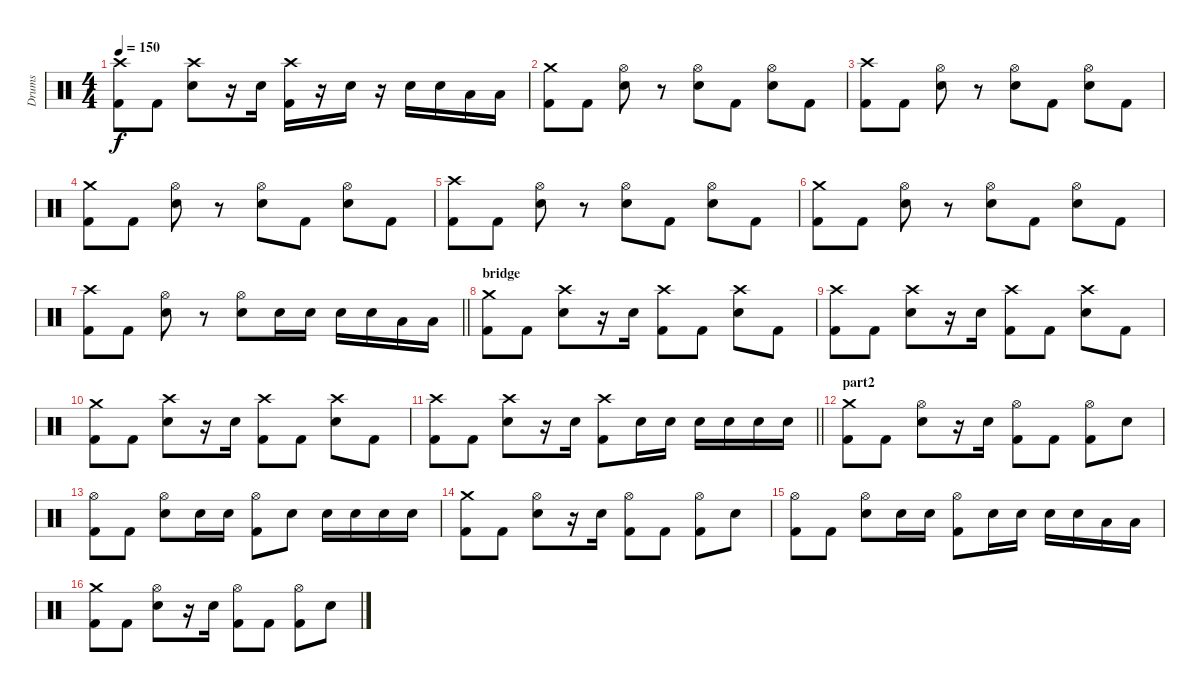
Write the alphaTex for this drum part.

\track ("Drums" "Drums") {instrument percussion}
\staff {score}
\articulation defaults
\ts (4 4)
\tempo 150
\clef neutral
\ks c
("Kick (hit) 2" "Crash high (hit)").8{dy f} "Kick (hit) 2".8 ("Electric Snare (hit)" "Crash high (hit)").8 r.16 "Electric Snare (hit)".16 ("Kick (hit) 2" "Crash high (hit)").16 r.16 "Electric Snare (hit)".16 r.16 "Electric Snare (hit)".16 "Electric Snare (hit)".16 "Low Tom (hit)".16 "Low Tom (hit)".16 |
("Kick (hit) 2" "Crash medium (hit)").8 "Kick (hit) 2".8 ("Electric Snare (hit)" "Hi-Hat (open)").8 r.8 ("Electric Snare (hit)" "Hi-Hat (open)").8 "Kick (hit) 2".8 ("Electric Snare (hit)" "Hi-Hat (open)").8 "Kick (hit) 2".8 |
("Kick (hit) 2" "Crash high (hit)").8 "Kick (hit) 2".8 ("Electric Snare (hit)" "Hi-Hat (open)").8 r.8 ("Electric Snare (hit)" "Hi-Hat (open)").8 "Kick (hit) 2".8 ("Electric Snare (hit)" "Hi-Hat (open)").8 "Kick (hit) 2".8 |
("Kick (hit) 2" "Crash medium (hit)").8 "Kick (hit) 2".8 ("Electric Snare (hit)" "Hi-Hat (open)").8 r.8 ("Electric Snare (hit)" "Hi-Hat (open)").8 "Kick (hit) 2".8 ("Electric Snare (hit)" "Hi-Hat (open)").8 "Kick (hit) 2".8 |
("Kick (hit) 2" "Crash high (hit)").8 "Kick (hit) 2".8 ("Electric Snare (hit)" "Hi-Hat (open)").8 r.8 ("Electric Snare (hit)" "Hi-Hat (open)").8 "Kick (hit) 2".8 ("Electric Snare (hit)" "Hi-Hat (open)").8 "Kick (hit) 2".8 |
("Kick (hit) 2" "Crash medium (hit)").8 "Kick (hit) 2".8 ("Electric Snare (hit)" "Hi-Hat (open)").8 r.8 ("Electric Snare (hit)" "Hi-Hat (open)").8 "Kick (hit) 2".8 ("Electric Snare (hit)" "Hi-Hat (open)").8 "Kick (hit) 2".8 |
\barLineRight lightlight
("Kick (hit) 2" "Crash high (hit)").8 "Kick (hit) 2".8 ("Electric Snare (hit)" "Hi-Hat (open)").8 r.8 ("Electric Snare (hit)" "Hi-Hat (open)").8 "Electric Snare (hit)".16 "Electric Snare (hit)".16 "Electric Snare (hit)".16 "Electric Snare (hit)".16 "Low Tom (hit)".16 "Low Tom (hit)".16 |
\section ("" "bridge")
("Kick (hit) 2" "Crash medium (hit)").8 "Kick (hit) 2".8 ("Electric Snare (hit)" "Crash high (hit)").8 r.16 "Electric Snare (hit)".16 ("Kick (hit) 2" "Crash high (hit)").8 "Kick (hit) 2".8 ("Electric Snare (hit)" "Crash high (hit)").8 "Kick (hit) 2".8 |
("Kick (hit) 2" "Crash high (hit)").8 "Kick (hit) 2".8 ("Electric Snare (hit)" "Crash high (hit)").8 r.16 "Electric Snare (hit)".16 ("Kick (hit) 2" "Crash high (hit)").8 "Kick (hit) 2".8 ("Electric Snare (hit)" "Crash high (hit)").8 "Kick (hit) 2".8 |
("Kick (hit) 2" "Crash medium (hit)").8 "Kick (hit) 2".8 ("Electric Snare (hit)" "Crash high (hit)").8 r.16 "Electric Snare (hit)".16 ("Kick (hit) 2" "Crash high (hit)").8 "Kick (hit) 2".8 ("Electric Snare (hit)" "Crash high (hit)").8 "Kick (hit) 2".8 |
\barLineRight lightlight
("Kick (hit) 2" "Crash high (hit)").8 "Kick (hit) 2".8 ("Electric Snare (hit)" "Crash high (hit)").8 r.16 "Electric Snare (hit)".16 ("Kick (hit) 2" "Crash high (hit)").8 "Electric Snare (hit)".16 "Electric Snare (hit)".16 "Electric Snare (hit)".16 "Electric Snare (hit)".16 "Electric Snare (hit)".16 "Electric Snare (hit)".16 |
\section ("" "part2")
("Kick (hit) 2" "Crash medium (hit)").8 "Kick (hit) 2".8 ("Electric Snare (hit)" "Hi-Hat (open)").8 r.16 "Electric Snare (hit)".16 ("Kick (hit) 2" "Hi-Hat (open)").8 "Kick (hit) 2".8 ("Kick (hit) 2" "Hi-Hat (open)").8 "Electric Snare (hit)".8 |
("Kick (hit) 2" "Hi-Hat (open)").8 "Kick (hit) 2".8 ("Electric Snare (hit)" "Hi-Hat (open)").8 "Electric Snare (hit)".16 "Electric Snare (hit)".16 ("Kick (hit) 2" "Hi-Hat (open)").8 "Electric Snare (hit)".8 "Electric Snare (hit)".16 "Electric Snare (hit)".16 "Electric Snare (hit)".16 "Electric Snare (hit)".16 |
("Kick (hit) 2" "Crash medium (hit)").8 "Kick (hit) 2".8 ("Electric Snare (hit)" "Hi-Hat (open)").8 r.16 "Electric Snare (hit)".16 ("Kick (hit) 2" "Hi-Hat (open)").8 "Kick (hit) 2".8 ("Kick (hit) 2" "Hi-Hat (open)").8 "Electric Snare (hit)".8 |
("Kick (hit) 2" "Hi-Hat (open)").8 "Kick (hit) 2".8 ("Electric Snare (hit)" "Hi-Hat (open)").8 "Electric Snare (hit)".16 "Electric Snare (hit)".16 ("Kick (hit) 2" "Hi-Hat (open)").8 "Electric Snare (hit)".16 "Electric Snare (hit)".16 "Electric Snare (hit)".16 "Electric Snare (hit)".16 "Low Tom (hit)".16 "Low Tom (hit)".16 |
("Kick (hit) 2" "Crash medium (hit)").8 "Kick (hit) 2".8 ("Electric Snare (hit)" "Hi-Hat (open)").8 r.16 "Electric Snare (hit)".16 ("Kick (hit) 2" "Hi-Hat (open)").8 "Kick (hit) 2".8 ("Kick (hit) 2" "Hi-Hat (open)").8 "Electric Snare (hit)".8
